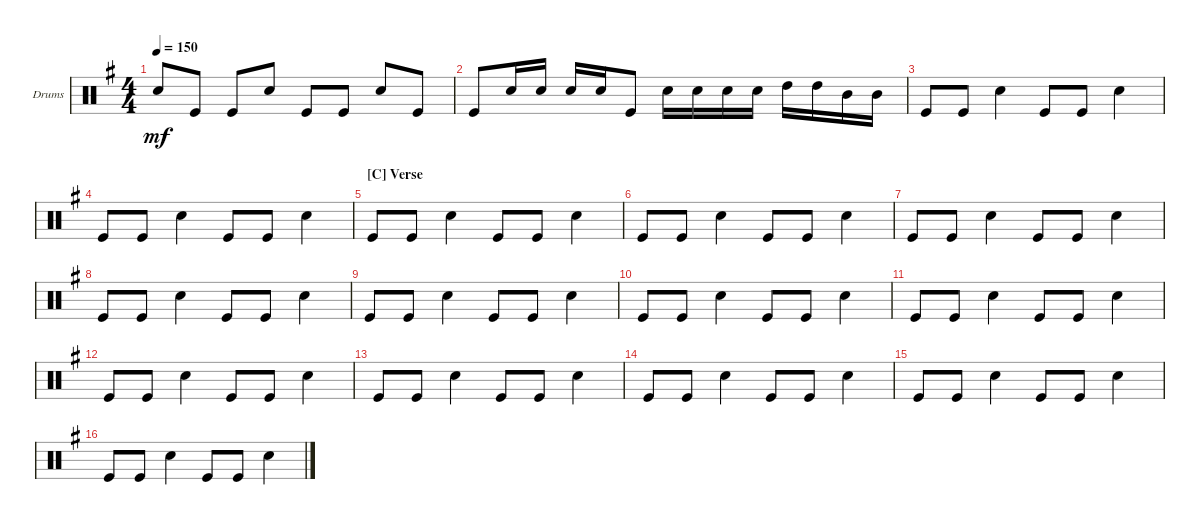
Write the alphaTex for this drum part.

\defaultSystemsLayout 4
\bracketExtendMode groupsimilarinstruments
\firstSystemTrackNameOrientation horizontal
\otherSystemsTrackNameOrientation horizontal
\track ("Drumkit" "Drums") {instrument percussion}
\staff {score}
\articulation defaults
\ts (4 4)
\tempo 150
\clef neutral
\ks g "Snare (hit) 2".8{dy mf} "Kick (hit)".8 "Kick (hit)".8 "Snare (hit) 2".8 "Kick (hit)".8 "Kick (hit)".8 "Snare (hit) 2".8 "Kick (hit)".8
|
"Kick (hit)".8 "Snare (hit) 2".16 "Snare (hit) 2".16 "Snare (hit) 2".16 "Snare (hit) 2".16 "Kick (hit)".8 "Snare (hit) 2".16 "Snare (hit) 2".16 "Snare (hit) 2".16 "Snare (hit) 2".16 "High Tom (hit)".16 "High Tom (hit)".16 "Mid Tom (hit)".16 "Mid Tom (hit)".16 |
"Kick (hit)".8 "Kick (hit)".8 "Snare (hit) 2".4 "Kick (hit)".8 "Kick (hit)".8 "Snare (hit) 2".4 |
"Kick (hit)".8 "Kick (hit)".8 "Snare (hit) 2".4 "Kick (hit)".8 "Kick (hit)".8 "Snare (hit) 2".4 |
\section ("C" "Verse")
"Kick (hit)".8 "Kick (hit)".8 "Snare (hit) 2".4 "Kick (hit)".8 "Kick (hit)".8 "Snare (hit) 2".4 |
"Kick (hit)".8 "Kick (hit)".8 "Snare (hit) 2".4 "Kick (hit)".8 "Kick (hit)".8 "Snare (hit) 2".4 |
"Kick (hit)".8 "Kick (hit)".8 "Snare (hit) 2".4 "Kick (hit)".8 "Kick (hit)".8 "Snare (hit) 2".4 |
"Kick (hit)".8 "Kick (hit)".8 "Snare (hit) 2".4 "Kick (hit)".8 "Kick (hit)".8 "Snare (hit) 2".4 |
"Kick (hit)".8 "Kick (hit)".8 "Snare (hit) 2".4 "Kick (hit)".8 "Kick (hit)".8 "Snare (hit) 2".4 |
"Kick (hit)".8 "Kick (hit)".8 "Snare (hit) 2".4 "Kick (hit)".8 "Kick (hit)".8 "Snare (hit) 2".4 |
"Kick (hit)".8 "Kick (hit)".8 "Snare (hit) 2".4 "Kick (hit)".8 "Kick (hit)".8 "Snare (hit) 2".4 |
"Kick (hit)".8 "Kick (hit)".8 "Snare (hit) 2".4 "Kick (hit)".8 "Kick (hit)".8 "Snare (hit) 2".4 |
"Kick (hit)".8 "Kick (hit)".8 "Snare (hit) 2".4 "Kick (hit)".8 "Kick (hit)".8 "Snare (hit) 2".4 |
"Kick (hit)".8 "Kick (hit)".8 "Snare (hit) 2".4 "Kick (hit)".8 "Kick (hit)".8 "Snare (hit) 2".4 |
"Kick (hit)".8 "Kick (hit)".8 "Snare (hit) 2".4 "Kick (hit)".8 "Kick (hit)".8 "Snare (hit) 2".4 |
"Kick (hit)".8 "Kick (hit)".8 "Snare (hit) 2".4 "Kick (hit)".8 "Kick (hit)".8 "Snare (hit) 2".4
